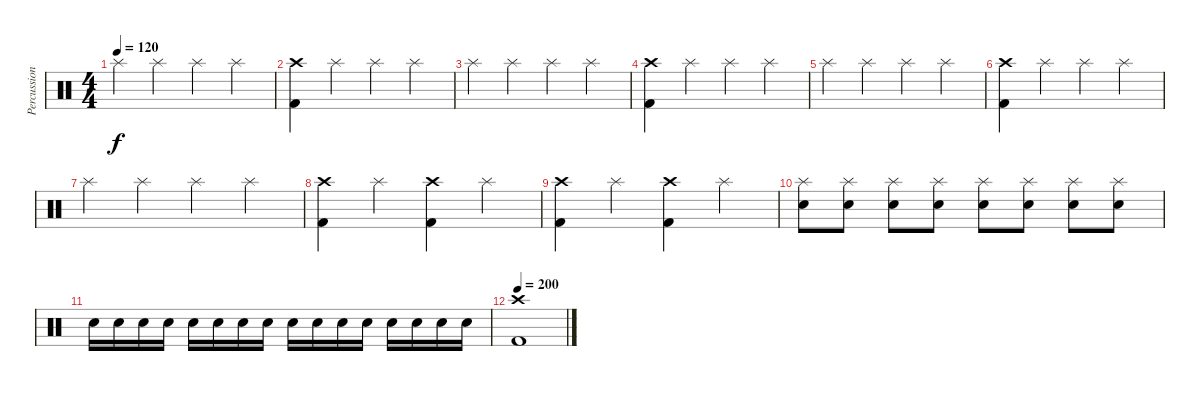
\track ("Percussion" "Percussion") {instrument percussion}
\staff {score}
\articulation defaults
\ts (4 4)
\tempo 120
\clef neutral
\ks c "Splash (hit)".4{dy f} "Splash (hit)".4 "Splash (hit)".4 "Splash (hit)".4
|
("Kick (hit) 2" "Crash high (hit)").4 "Splash (hit)".4 "Splash (hit)".4 "Splash (hit)".4 |
"Splash (hit)".4 "Splash (hit)".4 "Splash (hit)".4 "Splash (hit)".4 |
("Kick (hit) 2" "Crash high (hit)").4 "Splash (hit)".4 "Splash (hit)".4 "Splash (hit)".4 |
"Splash (hit)".4 "Splash (hit)".4 "Splash (hit)".4 "Splash (hit)".4 |
("Kick (hit) 2" "Crash high (hit)").4 "Splash (hit)".4 "Splash (hit)".4 "Splash (hit)".4 |
"Splash (hit)".4 "Splash (hit)".4 "Splash (hit)".4 "Splash (hit)".4 |
("Kick (hit) 2" "Crash high (hit)").4 "Splash (hit)".4 ("Kick (hit) 2" "Crash high (hit)").4 "Splash (hit)".4 |
("Kick (hit) 2" "Crash high (hit)").4 "Splash (hit)".4 ("Kick (hit) 2" "Crash high (hit)").4 "Splash (hit)".4 |
("Electric Snare (hit)" "Splash (hit)").8 ("Electric Snare (hit)" "Splash (hit)").8 ("Electric Snare (hit)" "Splash (hit)").8 ("Electric Snare (hit)" "Splash (hit)").8 ("Electric Snare (hit)" "Splash (hit)").8 ("Electric Snare (hit)" "Splash (hit)").8 ("Electric Snare (hit)" "Splash (hit)").8 ("Electric Snare (hit)" "Splash (hit)").8 |
"Electric Snare (hit)".16 "Electric Snare (hit)".16 "Electric Snare (hit)".16 "Electric Snare (hit)".16 "Electric Snare (hit)".16 "Electric Snare (hit)".16 "Electric Snare (hit)".16 "Electric Snare (hit)".16 "Electric Snare (hit)".16 "Electric Snare (hit)".16 "Electric Snare (hit)".16 "Electric Snare (hit)".16 "Electric Snare (hit)".16 "Electric Snare (hit)".16 "Electric Snare (hit)".16 "Electric Snare (hit)".16 |
\tempo 200
("Kick (hit) 2" "Crash high (hit)").1
